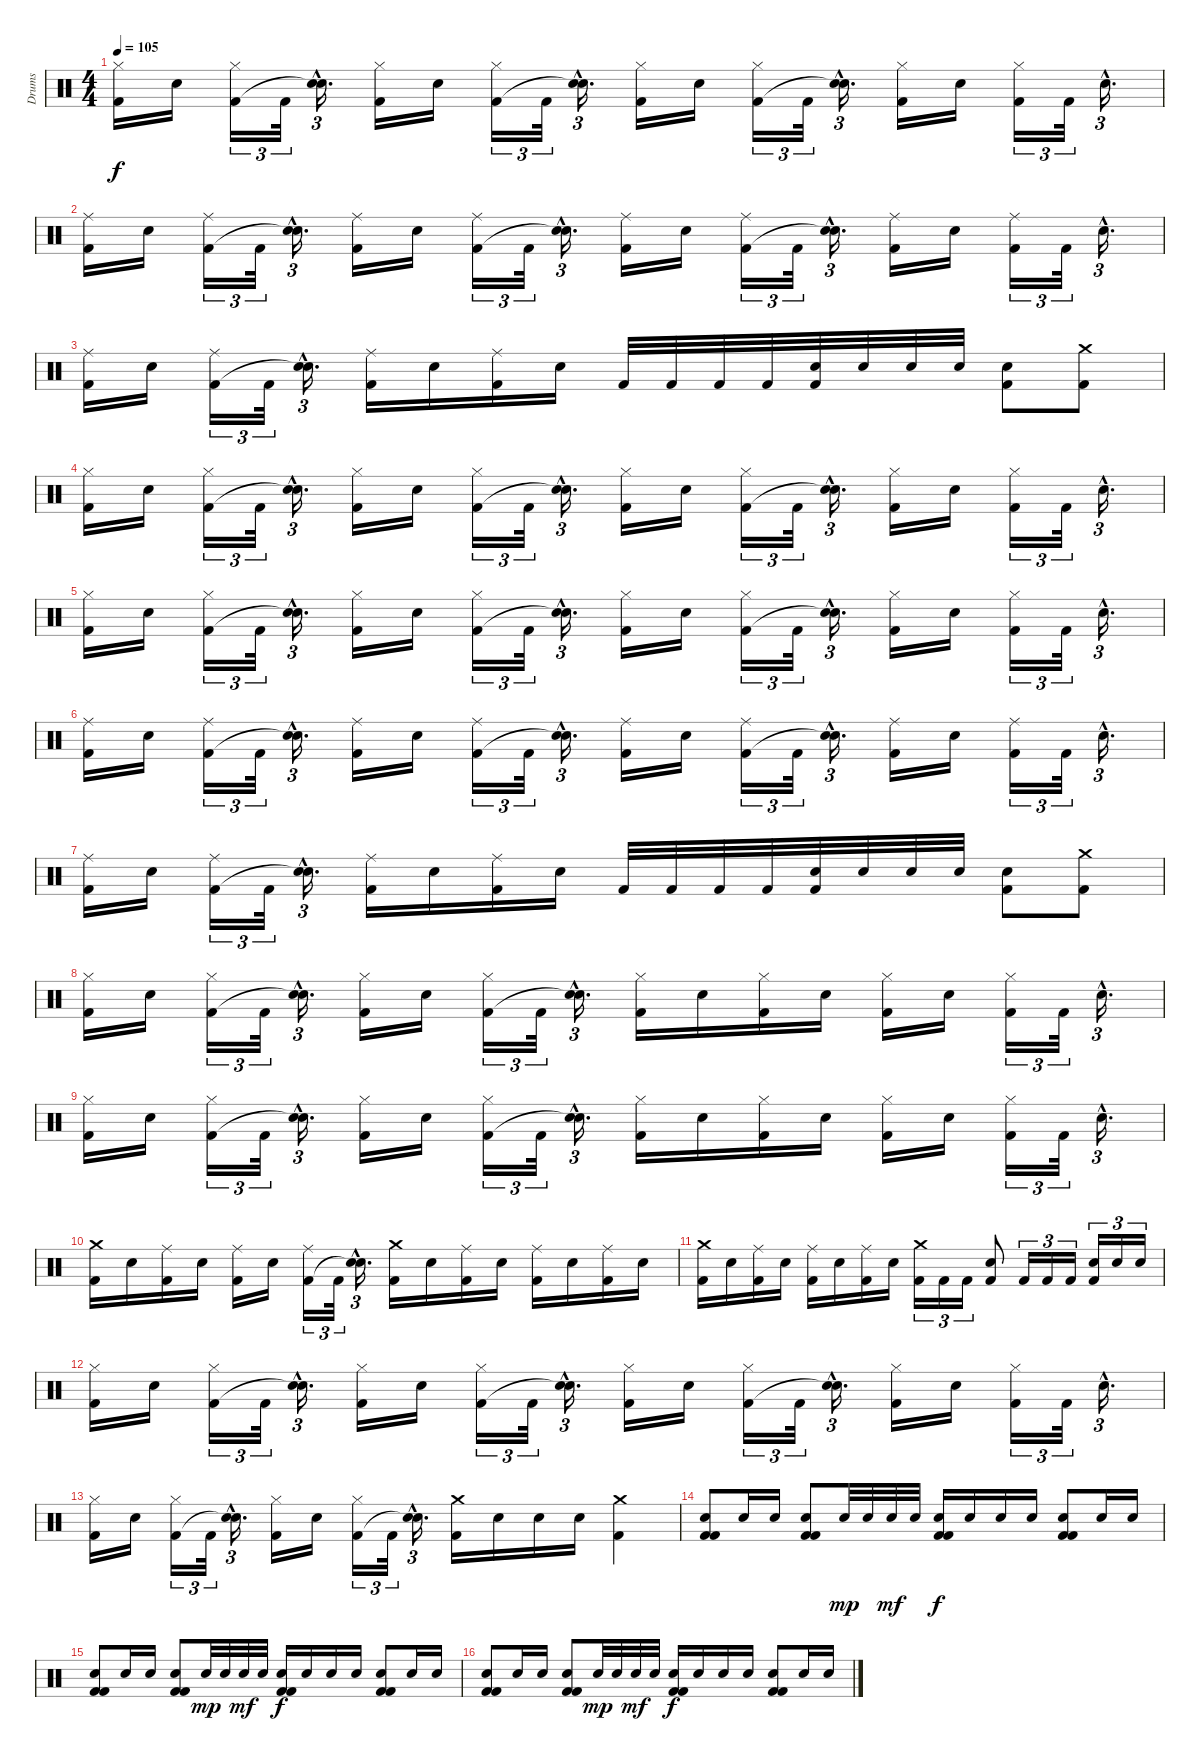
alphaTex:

\track ("Drums" "Drums") {instrument percussion}
\staff {score}
\articulation defaults
\ts (4 4)
\tempo 105
\clef neutral
\ks c
("Hi-Hat (closed)" "Kick (hit) 2").16{dy f} "Electric Snare (hit)".16 ("Hi-Hat (closed)" "Kick (hit) 2").16{tu (3 2)} "Kick (hit) 2".32{tu (3 2)} ("Electric Snare (hit)"{hac} "Snare (hit)"{hac t}).16{d tu (3 2)} ("Hi-Hat (closed)" "Kick (hit) 2").16 "Electric Snare (hit)".16 ("Hi-Hat (closed)" "Kick (hit) 2").16{tu (3 2)} "Kick (hit) 2".32{tu (3 2)} ("Electric Snare (hit)"{hac} "Snare (hit)"{hac t}).16{d tu (3 2)} ("Hi-Hat (closed)" "Kick (hit) 2").16 "Electric Snare (hit)".16 ("Hi-Hat (closed)" "Kick (hit) 2").16{tu (3 2)} "Kick (hit) 2".32{tu (3 2)} ("Electric Snare (hit)"{hac} "Snare (hit)"{hac t}).16{d tu (3 2)} ("Hi-Hat (closed)" "Kick (hit) 2").16 "Electric Snare (hit)".16 ("Hi-Hat (closed)" "Kick (hit) 2").16{tu (3 2)} "Kick (hit) 2".32{tu (3 2)} "Electric Snare (hit)"{hac}.16{d tu (3 2)} |
("Ride (middle)" "Kick (hit) 2").16 "Electric Snare (hit)".16 ("Ride (middle)" "Kick (hit) 2").16{tu (3 2)} "Kick (hit) 2".32{tu (3 2)} ("Electric Snare (hit)"{hac} "Snare (hit)"{hac t}).16{d tu (3 2)} ("Ride (middle)" "Kick (hit) 2").16 "Electric Snare (hit)".16 ("Ride (middle)" "Kick (hit) 2").16{tu (3 2)} "Kick (hit) 2".32{tu (3 2)} ("Electric Snare (hit)"{hac} "Snare (hit)"{hac t}).16{d tu (3 2)} ("Ride (middle)" "Kick (hit) 2").16 "Electric Snare (hit)".16 ("Ride (middle)" "Kick (hit) 2").16{tu (3 2)} "Kick (hit) 2".32{tu (3 2)} ("Electric Snare (hit)"{hac} "Snare (hit)"{hac t}).16{d tu (3 2)} ("Ride (middle)" "Kick (hit) 2").16 "Electric Snare (hit)".16 ("Ride (middle)" "Kick (hit) 2").16{tu (3 2)} "Kick (hit) 2".32{tu (3 2)} "Electric Snare (hit)"{hac}.16{d tu (3 2)} |
("Ride (middle)" "Kick (hit) 2").16 "Electric Snare (hit)".16 ("Ride (middle)" "Kick (hit) 2").16{tu (3 2)} "Kick (hit) 2".32{tu (3 2)} ("Electric Snare (hit)"{hac} "Snare (hit)"{hac t}).16{d tu (3 2)} ("Ride (middle)" "Kick (hit) 2").16 "Electric Snare (hit)".16 ("Ride (middle)" "Kick (hit) 2").16 "Electric Snare (hit)".16 "Kick (hit) 2".32 "Kick (hit) 2".32 "Kick (hit) 2".32 "Kick (hit) 2".32 ("Electric Snare (hit)" "Kick (hit) 2").32 "Electric Snare (hit)".32 "Electric Snare (hit)".32 "Electric Snare (hit)".32 ("Electric Snare (hit)" "Kick (hit) 2").8 ("Crash medium (hit)" "Kick (hit) 2").8 |
("Hi-Hat (closed)" "Kick (hit) 2").16 "Electric Snare (hit)".16 ("Hi-Hat (closed)" "Kick (hit) 2").16{tu (3 2)} "Kick (hit) 2".32{tu (3 2)} ("Electric Snare (hit)"{hac} "Snare (hit)"{hac t}).16{d tu (3 2)} ("Hi-Hat (closed)" "Kick (hit) 2").16 "Electric Snare (hit)".16 ("Hi-Hat (closed)" "Kick (hit) 2").16{tu (3 2)} "Kick (hit) 2".32{tu (3 2)} ("Electric Snare (hit)"{hac} "Snare (hit)"{hac t}).16{d tu (3 2)} ("Hi-Hat (closed)" "Kick (hit) 2").16 "Electric Snare (hit)".16 ("Hi-Hat (closed)" "Kick (hit) 2").16{tu (3 2)} "Kick (hit) 2".32{tu (3 2)} ("Electric Snare (hit)"{hac} "Snare (hit)"{hac t}).16{d tu (3 2)} ("Hi-Hat (closed)" "Kick (hit) 2").16 "Electric Snare (hit)".16 ("Hi-Hat (closed)" "Kick (hit) 2").16{tu (3 2)} "Kick (hit) 2".32{tu (3 2)} "Electric Snare (hit)"{hac}.16{d tu (3 2)} |
("Hi-Hat (closed)" "Kick (hit) 2").16 "Electric Snare (hit)".16 ("Hi-Hat (closed)" "Kick (hit) 2").16{tu (3 2)} "Kick (hit) 2".32{tu (3 2)} ("Electric Snare (hit)"{hac} "Snare (hit)"{hac t}).16{d tu (3 2)} ("Hi-Hat (closed)" "Kick (hit) 2").16 "Electric Snare (hit)".16 ("Hi-Hat (closed)" "Kick (hit) 2").16{tu (3 2)} "Kick (hit) 2".32{tu (3 2)} ("Electric Snare (hit)"{hac} "Snare (hit)"{hac t}).16{d tu (3 2)} ("Hi-Hat (closed)" "Kick (hit) 2").16 "Electric Snare (hit)".16 ("Hi-Hat (closed)" "Kick (hit) 2").16{tu (3 2)} "Kick (hit) 2".32{tu (3 2)} ("Electric Snare (hit)"{hac} "Snare (hit)"{hac t}).16{d tu (3 2)} ("Hi-Hat (closed)" "Kick (hit) 2").16 "Electric Snare (hit)".16 ("Hi-Hat (closed)" "Kick (hit) 2").16{tu (3 2)} "Kick (hit) 2".32{tu (3 2)} "Electric Snare (hit)"{hac}.16{d tu (3 2)} |
("Ride (middle)" "Kick (hit) 2").16 "Electric Snare (hit)".16 ("Ride (middle)" "Kick (hit) 2").16{tu (3 2)} "Kick (hit) 2".32{tu (3 2)} ("Electric Snare (hit)"{hac} "Snare (hit)"{hac t}).16{d tu (3 2)} ("Ride (middle)" "Kick (hit) 2").16 "Electric Snare (hit)".16 ("Ride (middle)" "Kick (hit) 2").16{tu (3 2)} "Kick (hit) 2".32{tu (3 2)} ("Electric Snare (hit)"{hac} "Snare (hit)"{hac t}).16{d tu (3 2)} ("Ride (middle)" "Kick (hit) 2").16 "Electric Snare (hit)".16 ("Ride (middle)" "Kick (hit) 2").16{tu (3 2)} "Kick (hit) 2".32{tu (3 2)} ("Electric Snare (hit)"{hac} "Snare (hit)"{hac t}).16{d tu (3 2)} ("Ride (middle)" "Kick (hit) 2").16 "Electric Snare (hit)".16 ("Ride (middle)" "Kick (hit) 2").16{tu (3 2)} "Kick (hit) 2".32{tu (3 2)} "Electric Snare (hit)"{hac}.16{d tu (3 2)} |
("Ride (middle)" "Kick (hit) 2").16 "Electric Snare (hit)".16 ("Ride (middle)" "Kick (hit) 2").16{tu (3 2)} "Kick (hit) 2".32{tu (3 2)} ("Electric Snare (hit)"{hac} "Snare (hit)"{hac t}).16{d tu (3 2)} ("Ride (middle)" "Kick (hit) 2").16 "Electric Snare (hit)".16 ("Ride (middle)" "Kick (hit) 2").16 "Electric Snare (hit)".16 "Kick (hit) 2".32 "Kick (hit) 2".32 "Kick (hit) 2".32 "Kick (hit) 2".32 ("Electric Snare (hit)" "Kick (hit) 2").32 "Electric Snare (hit)".32 "Electric Snare (hit)".32 "Electric Snare (hit)".32 ("Electric Snare (hit)" "Kick (hit) 2").8 ("Crash medium (hit)" "Kick (hit) 2").8 |
("Hi-Hat (closed)" "Kick (hit) 2").16 "Electric Snare (hit)".16 ("Hi-Hat (closed)" "Kick (hit) 2").16{tu (3 2)} "Kick (hit) 2".32{tu (3 2)} ("Electric Snare (hit)"{hac} "Snare (hit)"{hac t}).16{d tu (3 2)} ("Hi-Hat (closed)" "Kick (hit) 2").16 "Electric Snare (hit)".16 ("Hi-Hat (closed)" "Kick (hit) 2").16{tu (3 2)} "Kick (hit) 2".32{tu (3 2)} ("Electric Snare (hit)"{hac} "Snare (hit)"{hac t}).16{d tu (3 2)} ("Hi-Hat (closed)" "Kick (hit) 2").16 "Electric Snare (hit)".16 ("Hi-Hat (closed)" "Kick (hit) 2").16 "Electric Snare (hit)".16 ("Hi-Hat (closed)" "Kick (hit) 2").16 "Electric Snare (hit)".16 ("Hi-Hat (closed)" "Kick (hit) 2").16{tu (3 2)} "Kick (hit) 2".32{tu (3 2)} "Electric Snare (hit)"{hac}.16{d tu (3 2)} |
("Hi-Hat (closed)" "Kick (hit) 2").16 "Electric Snare (hit)".16 ("Hi-Hat (closed)" "Kick (hit) 2").16{tu (3 2)} "Kick (hit) 2".32{tu (3 2)} ("Electric Snare (hit)"{hac} "Snare (hit)"{hac t}).16{d tu (3 2)} ("Hi-Hat (closed)" "Kick (hit) 2").16 "Electric Snare (hit)".16 ("Hi-Hat (closed)" "Kick (hit) 2").16{tu (3 2)} "Kick (hit) 2".32{tu (3 2)} ("Electric Snare (hit)"{hac} "Snare (hit)"{hac t}).16{d tu (3 2)} ("Hi-Hat (closed)" "Kick (hit) 2").16 "Electric Snare (hit)".16 ("Hi-Hat (closed)" "Kick (hit) 2").16 "Electric Snare (hit)".16 ("Hi-Hat (closed)" "Kick (hit) 2").16 "Electric Snare (hit)".16 ("Hi-Hat (closed)" "Kick (hit) 2").16{tu (3 2)} "Kick (hit) 2".32{tu (3 2)} "Electric Snare (hit)"{hac}.16{d tu (3 2)} |
("Crash medium (hit)" "Kick (hit) 2").16 "Electric Snare (hit)".16 ("Ride (middle)" "Kick (hit) 2").16 "Electric Snare (hit)".16 ("Ride (middle)" "Kick (hit) 2").16 "Electric Snare (hit)".16 ("Ride (middle)" "Kick (hit) 2").16{tu (3 2)} "Kick (hit) 2".32{tu (3 2)} ("Electric Snare (hit)"{hac} "Snare (hit)"{hac t}).16{d tu (3 2)} ("Crash medium (hit)" "Kick (hit) 2").16 "Electric Snare (hit)".16 ("Ride (middle)" "Kick (hit) 2").16 "Electric Snare (hit)".16 ("Ride (middle)" "Kick (hit) 2").16 "Electric Snare (hit)".16 ("Ride (middle)" "Kick (hit) 2").16 "Electric Snare (hit)".16 |
("Crash medium (hit)" "Kick (hit) 2").16 "Electric Snare (hit)".16 ("Ride (middle)" "Kick (hit) 2").16 "Electric Snare (hit)".16 ("Ride (middle)" "Kick (hit) 2").16 "Electric Snare (hit)".16 ("Ride (middle)" "Kick (hit) 2").16 "Electric Snare (hit)".16 ("Crash medium (hit)" "Kick (hit) 2").16{tu (3 2)} "Kick (hit) 2".16{tu (3 2)} "Kick (hit) 2".16{tu (3 2)} ("Electric Snare (hit)" "Kick (hit) 2").8 "Kick (hit) 2".16{tu (3 2)} "Kick (hit) 2".16{tu (3 2)} "Kick (hit) 2".16{tu (3 2)} ("Electric Snare (hit)" "Kick (hit) 2").16{tu (3 2)} "Electric Snare (hit)".16{tu (3 2)} "Electric Snare (hit)".16{tu (3 2)} |
("Hi-Hat (closed)" "Kick (hit) 2").16 "Electric Snare (hit)".16 ("Hi-Hat (closed)" "Kick (hit) 2").16{tu (3 2)} "Kick (hit) 2".32{tu (3 2)} ("Electric Snare (hit)"{hac} "Snare (hit)"{hac t}).16{d tu (3 2)} ("Hi-Hat (closed)" "Kick (hit) 2").16 "Electric Snare (hit)".16 ("Hi-Hat (closed)" "Kick (hit) 2").16{tu (3 2)} "Kick (hit) 2".32{tu (3 2)} ("Electric Snare (hit)"{hac} "Snare (hit)"{hac t}).16{d tu (3 2)} ("Hi-Hat (closed)" "Kick (hit) 2").16 "Electric Snare (hit)".16 ("Hi-Hat (closed)" "Kick (hit) 2").16{tu (3 2)} "Kick (hit) 2".32{tu (3 2)} ("Electric Snare (hit)"{hac} "Snare (hit)"{hac t}).16{d tu (3 2)} ("Hi-Hat (closed)" "Kick (hit) 2").16 "Electric Snare (hit)".16 ("Hi-Hat (closed)" "Kick (hit) 2").16{tu (3 2)} "Kick (hit) 2".32{tu (3 2)} "Electric Snare (hit)"{hac}.16{d tu (3 2)} |
("Hi-Hat (closed)" "Kick (hit) 2").16 "Electric Snare (hit)".16 ("Hi-Hat (closed)" "Kick (hit) 2").16{tu (3 2)} "Kick (hit) 2".32{tu (3 2)} ("Electric Snare (hit)"{hac} "Snare (hit)"{hac t}).16{d tu (3 2)} ("Hi-Hat (closed)" "Kick (hit) 2").16 "Electric Snare (hit)".16 ("Hi-Hat (closed)" "Kick (hit) 2").16{tu (3 2)} "Kick (hit) 2".32{tu (3 2)} ("Electric Snare (hit)"{hac} "Snare (hit)"{hac t}).16{d tu (3 2)} ("Crash medium (hit)" "Kick (hit) 2").16 "Electric Snare (hit)".16 "Electric Snare (hit)".16 "Electric Snare (hit)".16 ("Crash medium (hit)" "Kick (hit) 2").4 |
("Snare (hit) 2" "Kick (hit) 2" "Kick (hit) 2").8 "Snare (hit) 2".16 "Snare (hit) 2".16 ("Snare (hit) 2" "Kick (hit) 2" "Kick (hit) 2").8 "Snare (hit) 2".32{dy mp} "Snare (hit) 2".32 "Snare (hit) 2".32{dy mf} "Snare (hit) 2".32 ("Snare (hit) 2" "Kick (hit) 2" "Kick (hit) 2").16{dy f} "Snare (hit) 2".16 "Snare (hit) 2".16 "Snare (hit) 2".16 ("Snare (hit) 2" "Kick (hit) 2" "Kick (hit) 2").8 "Snare (hit) 2".16 "Snare (hit) 2".16 |
("Snare (hit) 2" "Kick (hit) 2" "Kick (hit) 2").8 "Snare (hit) 2".16 "Snare (hit) 2".16 ("Snare (hit) 2" "Kick (hit) 2" "Kick (hit) 2").8 "Snare (hit) 2".32{dy mp} "Snare (hit) 2".32 "Snare (hit) 2".32{dy mf} "Snare (hit) 2".32 ("Snare (hit) 2" "Kick (hit) 2" "Kick (hit) 2").16{dy f} "Snare (hit) 2".16 "Snare (hit) 2".16 "Snare (hit) 2".16 ("Snare (hit) 2" "Kick (hit) 2" "Kick (hit) 2").8 "Snare (hit) 2".16 "Snare (hit) 2".16 |
("Snare (hit) 2" "Kick (hit) 2" "Kick (hit) 2").8 "Snare (hit) 2".16 "Snare (hit) 2".16 ("Snare (hit) 2" "Kick (hit) 2" "Kick (hit) 2").8 "Snare (hit) 2".32{dy mp} "Snare (hit) 2".32 "Snare (hit) 2".32{dy mf} "Snare (hit) 2".32 ("Snare (hit) 2" "Kick (hit) 2" "Kick (hit) 2").16{dy f} "Snare (hit) 2".16 "Snare (hit) 2".16 "Snare (hit) 2".16 ("Snare (hit) 2" "Kick (hit) 2" "Kick (hit) 2").8 "Snare (hit) 2".16 "Snare (hit) 2".16
